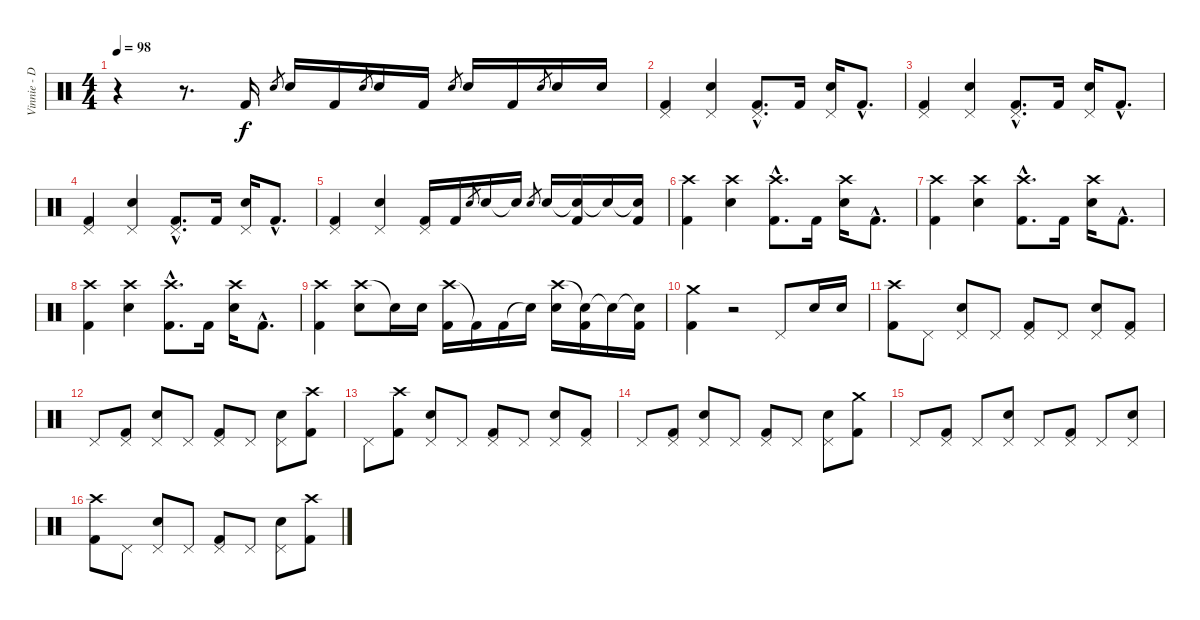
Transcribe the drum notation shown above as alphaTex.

\track ("Vinnie - Drums" "Vinnie - D") {instrument percussion}
\staff {score}
\articulation defaults
\ts (4 4)
\tempo 98
\clef neutral
\ks c
r.4{dy f} r.8{d} "Kick (hit) 2".16 "Electric Snare (hit)".8{gr} "Electric Snare (hit)".16 "Kick (hit) 2".16 "Electric Snare (hit)".8{gr} "Electric Snare (hit)".16 "Kick (hit) 2".16 "Electric Snare (hit)".8{gr} "Electric Snare (hit)".16 "Kick (hit) 2".16 "Electric Snare (hit)".8{gr} "Electric Snare (hit)".16 "Electric Snare (hit)".16 |
("Pedal Hi-Hat (hit)" "Kick (hit) 2").4 ("Pedal Hi-Hat (hit)" "Electric Snare (hit)").4 ("Pedal Hi-Hat (hit)"{hac} "Kick (hit) 2"{hac}).8{d} "Kick (hit) 2".16 ("Pedal Hi-Hat (hit)" "Electric Snare (hit)").16 "Kick (hit) 2"{hac}.8{d} |
("Pedal Hi-Hat (hit)" "Kick (hit) 2").4 ("Pedal Hi-Hat (hit)" "Electric Snare (hit)").4 ("Pedal Hi-Hat (hit)"{hac} "Kick (hit) 2"{hac}).8{d} "Kick (hit) 2".16 ("Pedal Hi-Hat (hit)" "Electric Snare (hit)").16 "Kick (hit) 2"{hac}.8{d} |
("Pedal Hi-Hat (hit)" "Kick (hit) 2").4 ("Pedal Hi-Hat (hit)" "Electric Snare (hit)").4 ("Pedal Hi-Hat (hit)"{hac} "Kick (hit) 2"{hac}).8{d} "Kick (hit) 2".16 ("Pedal Hi-Hat (hit)" "Electric Snare (hit)").16 "Kick (hit) 2"{hac}.8{d} |
("Pedal Hi-Hat (hit)" "Kick (hit) 2").4 ("Pedal Hi-Hat (hit)" "Electric Snare (hit)").4 ("Pedal Hi-Hat (hit)" "Kick (hit) 2").16 "Kick (hit) 2".16 "Electric Snare (hit)".8{gr} "Electric Snare (hit)".16 "Electric Snare (hit)"{t}.16 "Electric Snare (hit)".8{gr} "Electric Snare (hit)".16 ("Snare (hit)"{t} "Kick (hit) 2").16 "Snare (hit)"{t}.16 ("Snare (hit)"{t} "Kick (hit) 2").16 |
("Crash high (hit)" "Kick (hit) 2").4 ("Crash high (hit)" "Electric Snare (hit)").4 ("Crash high (hit)"{hac} "Kick (hit) 2"{hac}).8{d} "Kick (hit) 2".16 ("Crash high (hit)" "Electric Snare (hit)").16 "Kick (hit) 2"{hac}.8{d} |
("Crash high (hit)" "Kick (hit) 2").4 ("Crash high (hit)" "Electric Snare (hit)").4 ("Crash high (hit)"{hac} "Kick (hit) 2"{hac}).8{d} "Kick (hit) 2".16 ("Crash high (hit)" "Electric Snare (hit)").16 "Kick (hit) 2"{hac}.8{d} |
("Crash high (hit)" "Kick (hit) 2").4 ("Crash high (hit)" "Electric Snare (hit)").4 ("Crash high (hit)"{hac} "Kick (hit) 2"{hac}).8{d} "Kick (hit) 2".16 ("Crash high (hit)" "Electric Snare (hit)").16 "Kick (hit) 2"{hac}.8{d} |
("Crash high (hit)" "Kick (hit) 2").4 ("Crash high (hit)" "Electric Snare (hit)").8 "Electric Snare (hit)"{t}.16 "Electric Snare (hit)".16 ("Crash high (hit)" "Kick (hit) 2").16 "Kick (hit) 2"{t}.16 "Kick (hit) 2".16 "Snare (hit)"{t}.16 ("Crash high (hit)" "Electric Snare (hit)").16 ("Snare (hit)"{t} "Kick (hit) 2").16 "Snare (hit)"{t}.16 ("Snare (hit)"{t} "Kick (hit) 2").16 |
("Crash medium (hit)" "Kick (hit) 2").4 r.2 "Pedal Hi-Hat (hit)".8 "Electric Snare (hit)".16 "Electric Snare (hit)".16 |
("Crash high (hit)" "Kick (hit) 2").8 "Pedal Hi-Hat (hit)".8 ("Pedal Hi-Hat (hit)" "Electric Snare (hit)").8 "Pedal Hi-Hat (hit)".8 ("Pedal Hi-Hat (hit)" "Kick (hit) 2").8 "Pedal Hi-Hat (hit)".8 ("Pedal Hi-Hat (hit)" "Electric Snare (hit)").8 ("Pedal Hi-Hat (hit)" "Kick (hit) 2").8 |
"Pedal Hi-Hat (hit)".8 ("Pedal Hi-Hat (hit)" "Kick (hit) 2").8 ("Pedal Hi-Hat (hit)" "Electric Snare (hit)").8 "Pedal Hi-Hat (hit)".8 ("Pedal Hi-Hat (hit)" "Kick (hit) 2").8 "Pedal Hi-Hat (hit)".8 ("Pedal Hi-Hat (hit)" "Electric Snare (hit)").8 ("Crash high (hit)" "Kick (hit) 2").8 |
"Pedal Hi-Hat (hit)".8 ("Crash high (hit)" "Kick (hit) 2").8 ("Pedal Hi-Hat (hit)" "Electric Snare (hit)").8 "Pedal Hi-Hat (hit)".8 ("Pedal Hi-Hat (hit)" "Kick (hit) 2").8 "Pedal Hi-Hat (hit)".8 ("Pedal Hi-Hat (hit)" "Electric Snare (hit)").8 ("Pedal Hi-Hat (hit)" "Kick (hit) 2").8 |
"Pedal Hi-Hat (hit)".8 ("Pedal Hi-Hat (hit)" "Kick (hit) 2").8 ("Pedal Hi-Hat (hit)" "Electric Snare (hit)").8 "Pedal Hi-Hat (hit)".8 ("Pedal Hi-Hat (hit)" "Kick (hit) 2").8 "Pedal Hi-Hat (hit)".8 ("Pedal Hi-Hat (hit)" "Electric Snare (hit)").8 ("Crash medium (hit)" "Kick (hit) 2").8 |
"Pedal Hi-Hat (hit)".8 ("Pedal Hi-Hat (hit)" "Kick (hit) 2").8 "Pedal Hi-Hat (hit)".8 ("Pedal Hi-Hat (hit)" "Electric Snare (hit)").8 "Pedal Hi-Hat (hit)".8 ("Pedal Hi-Hat (hit)" "Kick (hit) 2").8 "Pedal Hi-Hat (hit)".8 ("Pedal Hi-Hat (hit)" "Electric Snare (hit)").8 |
("Crash high (hit)" "Kick (hit) 2").8 "Pedal Hi-Hat (hit)".8 ("Pedal Hi-Hat (hit)" "Electric Snare (hit)").8 "Pedal Hi-Hat (hit)".8 ("Pedal Hi-Hat (hit)" "Kick (hit) 2").8 "Pedal Hi-Hat (hit)".8 ("Pedal Hi-Hat (hit)" "Electric Snare (hit)").8 ("Crash high (hit)" "Kick (hit) 2").8
